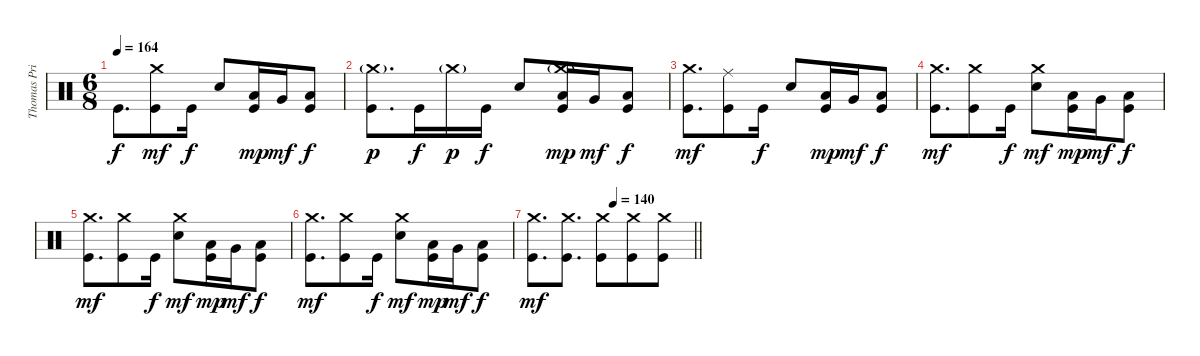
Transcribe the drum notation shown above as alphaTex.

\track ("Thomas Pridgen" "Thomas Pri") {instrument percussion}
\staff {score}
\articulation defaults
\ts (6 8)
\tempo 164
\clef neutral
\ks c "Kick (hit)".8{d dy f}
("Crash medium (hit)" "Kick (hit)").8{dy mf} "Kick (hit)".16{dy f} "Snare (hit) 2".8 ("Low Tom (hit)" "Kick (hit)").16{dy mp} "Very Low Tom (hit)".16{dy mf} ("Low Floor Tom (hit)" "Kick (hit)").8{dy f} |
("Crash medium (hit)"{g} "Kick (hit)").8{d dy p} "Kick (hit)".16{dy f} "Crash medium (hit)"{g}.16{dy p} "Kick (hit)".16{dy f} "Snare (hit) 2".8 ("Crash medium (hit)"{g} "Low Tom (hit)" "Kick (hit)").16{dy mp} "Very Low Tom (hit)".16{dy mf} ("Low Floor Tom (hit)" "Kick (hit)").8{dy f} |
("Crash medium (hit)" "Kick (hit)").8{d dy mf} ("Ride (middle)" "Kick (hit)").8 "Kick (hit)".16{dy f} "Snare (hit) 2".8 ("Low Tom (hit)" "Kick (hit)").16{dy mp} "Very Low Tom (hit)".16{dy mf} ("Low Floor Tom (hit)" "Kick (hit)").8{dy f} |
("Crash medium (hit)" "Kick (hit)").8{d dy mf} ("Crash medium (hit)" "Kick (hit)").8 "Kick (hit)".16{dy f} ("Crash medium (hit)" "Snare (hit) 2").8{dy mf} ("Low Tom (hit)" "Kick (hit)").16{dy mp} "Very Low Tom (hit)".16{dy mf} ("Low Floor Tom (hit)" "Kick (hit)").8{dy f} |
("Crash medium (hit)" "Kick (hit)").8{d dy mf} ("Crash medium (hit)" "Kick (hit)").8 "Kick (hit)".16{dy f} ("Crash medium (hit)" "Snare (hit) 2").8{dy mf} ("Low Tom (hit)" "Kick (hit)").16{dy mp} "Very Low Tom (hit)".16{dy mf} ("Low Floor Tom (hit)" "Kick (hit)").8{dy f} |
("Crash medium (hit)" "Kick (hit)").8{d dy mf} ("Crash medium (hit)" "Kick (hit)").8 "Kick (hit)".16{dy f} ("Crash medium (hit)" "Snare (hit) 2").8{dy mf} ("Low Tom (hit)" "Kick (hit)").16{dy mp} "Very Low Tom (hit)".16{dy mf} ("Low Floor Tom (hit)" "Kick (hit)").8{dy f} |
\tempo (140 0.5)
\barLineRight lightlight
("Crash medium (hit)" "Kick (hit)").8{d dy mf} ("Crash medium (hit)" "Kick (hit)").8{d} ("Crash medium (hit)" "Kick (hit)").8 ("Crash medium (hit)" "Kick (hit)").8 ("Crash medium (hit)" "Kick (hit)").8
